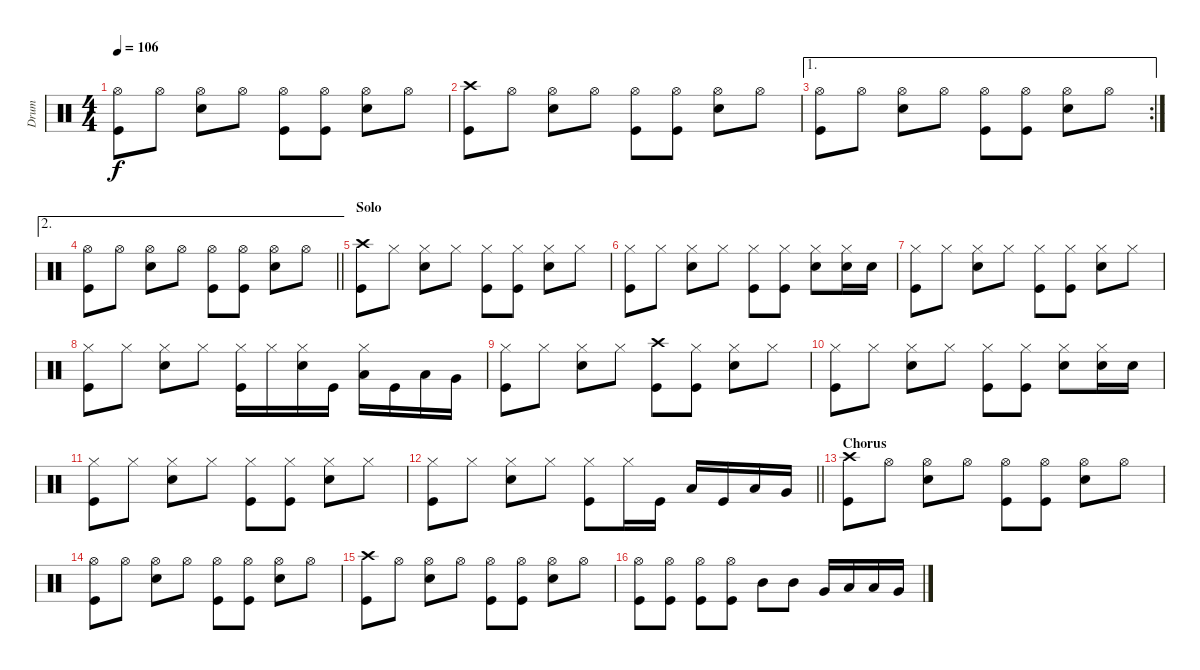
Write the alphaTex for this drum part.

\track ("Drum" "Drum") {instrument percussion}
\staff {score}
\articulation defaults
\ts (4 4)
\tempo 106
\clef neutral
\ks c
("Hi-Hat (open)" "Kick (hit)").8{dy f} "Hi-Hat (open)".8 ("Hi-Hat (open)" "Electric Snare (hit)").8 "Hi-Hat (open)".8 ("Hi-Hat (open)" "Kick (hit)").8 ("Hi-Hat (open)" "Kick (hit)").8 ("Hi-Hat (open)" "Electric Snare (hit)").8 "Hi-Hat (open)".8 |
("Crash high (hit)" "Kick (hit)").8 "Hi-Hat (open)".8 ("Hi-Hat (open)" "Electric Snare (hit)").8 "Hi-Hat (open)".8 ("Hi-Hat (open)" "Kick (hit)").8 ("Hi-Hat (open)" "Kick (hit)").8 ("Hi-Hat (open)" "Electric Snare (hit)").8 "Hi-Hat (open)".8 |
\ae 1
\rc 2
("Hi-Hat (open)" "Kick (hit)").8 "Hi-Hat (open)".8 ("Hi-Hat (open)" "Electric Snare (hit)").8 "Hi-Hat (open)".8 ("Hi-Hat (open)" "Kick (hit)").8 ("Hi-Hat (open)" "Kick (hit)").8 ("Hi-Hat (open)" "Electric Snare (hit)").8 "Hi-Hat (open)".8 |
\ae 2
\barLineRight lightlight
("Hi-Hat (open)" "Kick (hit)").8 "Hi-Hat (open)".8 ("Hi-Hat (open)" "Electric Snare (hit)").8 "Hi-Hat (open)".8 ("Hi-Hat (open)" "Kick (hit)").8 ("Hi-Hat (open)" "Kick (hit)").8 ("Hi-Hat (open)" "Electric Snare (hit)").8 "Hi-Hat (open)".8 |
\section ("" "Solo")
("Crash high (hit)" "Kick (hit)").8 "Hi-Hat (closed)".8 ("Hi-Hat (closed)" "Electric Snare (hit)").8 "Hi-Hat (closed)".8 ("Hi-Hat (closed)" "Kick (hit)").8 ("Hi-Hat (closed)" "Kick (hit)").8 ("Hi-Hat (closed)" "Electric Snare (hit)").8 "Hi-Hat (closed)".8 |
("Hi-Hat (closed)" "Kick (hit)").8 "Hi-Hat (closed)".8 ("Hi-Hat (closed)" "Electric Snare (hit)").8 "Hi-Hat (closed)".8 ("Hi-Hat (closed)" "Kick (hit)").8 ("Hi-Hat (closed)" "Kick (hit)").8 ("Hi-Hat (closed)" "Electric Snare (hit)").8 ("Hi-Hat (closed)" "Electric Snare (hit)").16 "Electric Snare (hit)".16 |
("Hi-Hat (closed)" "Kick (hit)").8 "Hi-Hat (closed)".8 ("Hi-Hat (closed)" "Electric Snare (hit)").8 "Hi-Hat (closed)".8 ("Hi-Hat (closed)" "Kick (hit)").8 ("Hi-Hat (closed)" "Kick (hit)").8 ("Hi-Hat (closed)" "Electric Snare (hit)").8 "Hi-Hat (closed)".8 |
("Hi-Hat (closed)" "Kick (hit)").8 "Hi-Hat (closed)".8 ("Hi-Hat (closed)" "Electric Snare (hit)").8 "Hi-Hat (closed)".8 ("Hi-Hat (closed)" "Kick (hit)").16 "Hi-Hat (closed)".16 ("Hi-Hat (closed)" "Electric Snare (hit)").16 "Kick (hit)".16 ("Hi-Hat (closed)" "Low Tom (hit)").16 "Kick (hit)".16 "Low Tom (hit)".16 "Very Low Tom (hit)".16 |
("Hi-Hat (closed)" "Kick (hit)").8 "Hi-Hat (closed)".8 ("Hi-Hat (closed)" "Electric Snare (hit)").8 "Hi-Hat (closed)".8 ("Crash high (hit)" "Kick (hit)").8 ("Hi-Hat (closed)" "Kick (hit)").8 ("Hi-Hat (closed)" "Electric Snare (hit)").8 "Hi-Hat (closed)".8 |
("Hi-Hat (closed)" "Kick (hit)").8 "Hi-Hat (closed)".8 ("Hi-Hat (closed)" "Electric Snare (hit)").8 "Hi-Hat (closed)".8 ("Hi-Hat (closed)" "Kick (hit)").8 ("Hi-Hat (closed)" "Kick (hit)").8 ("Hi-Hat (closed)" "Electric Snare (hit)").8 ("Hi-Hat (closed)" "Electric Snare (hit)").16 "Electric Snare (hit)".16 |
("Hi-Hat (closed)" "Kick (hit)").8 "Hi-Hat (closed)".8 ("Hi-Hat (closed)" "Electric Snare (hit)").8 "Hi-Hat (closed)".8 ("Hi-Hat (closed)" "Kick (hit)").8 ("Hi-Hat (closed)" "Kick (hit)").8 ("Hi-Hat (closed)" "Electric Snare (hit)").8 "Hi-Hat (closed)".8 |
\barLineRight lightlight
("Hi-Hat (closed)" "Kick (hit)").8 "Hi-Hat (closed)".8 ("Hi-Hat (closed)" "Electric Snare (hit)").8 "Hi-Hat (closed)".8 ("Hi-Hat (closed)" "Kick (hit)").8 "Hi-Hat (closed)".16 "Kick (hit)".16 "Low Tom (hit)".16 "Kick (hit)".16 "Low Tom (hit)".16 "Very Low Tom (hit)".16 |
\section ("" "Chorus")
("Crash high (hit)" "Kick (hit)").8 "Hi-Hat (open)".8 ("Hi-Hat (open)" "Electric Snare (hit)").8 "Hi-Hat (open)".8 ("Hi-Hat (open)" "Kick (hit)").8 ("Hi-Hat (open)" "Kick (hit)").8 ("Hi-Hat (open)" "Electric Snare (hit)").8 "Hi-Hat (open)".8 |
("Hi-Hat (open)" "Kick (hit)").8 "Hi-Hat (open)".8 ("Hi-Hat (open)" "Electric Snare (hit)").8 "Hi-Hat (open)".8 ("Hi-Hat (open)" "Kick (hit)").8 ("Hi-Hat (open)" "Kick (hit)").8 ("Hi-Hat (open)" "Electric Snare (hit)").8 "Hi-Hat (open)".8 |
("Crash high (hit)" "Kick (hit)").8 "Hi-Hat (open)".8 ("Hi-Hat (open)" "Electric Snare (hit)").8 "Hi-Hat (open)".8 ("Hi-Hat (open)" "Kick (hit)").8 ("Hi-Hat (open)" "Kick (hit)").8 ("Hi-Hat (open)" "Electric Snare (hit)").8 "Hi-Hat (open)".8 |
("Hi-Hat (open)" "Kick (hit)").8 ("Hi-Hat (open)" "Kick (hit)").8 ("Hi-Hat (open)" "Kick (hit)").8 ("Hi-Hat (open)" "Kick (hit)").8 "Mid Tom (hit)".8 "Mid Tom (hit)".8 "Very Low Tom (hit)".16 "Low Floor Tom (hit)".16 "Low Tom (hit)".16 "Very Low Tom (hit)".16
